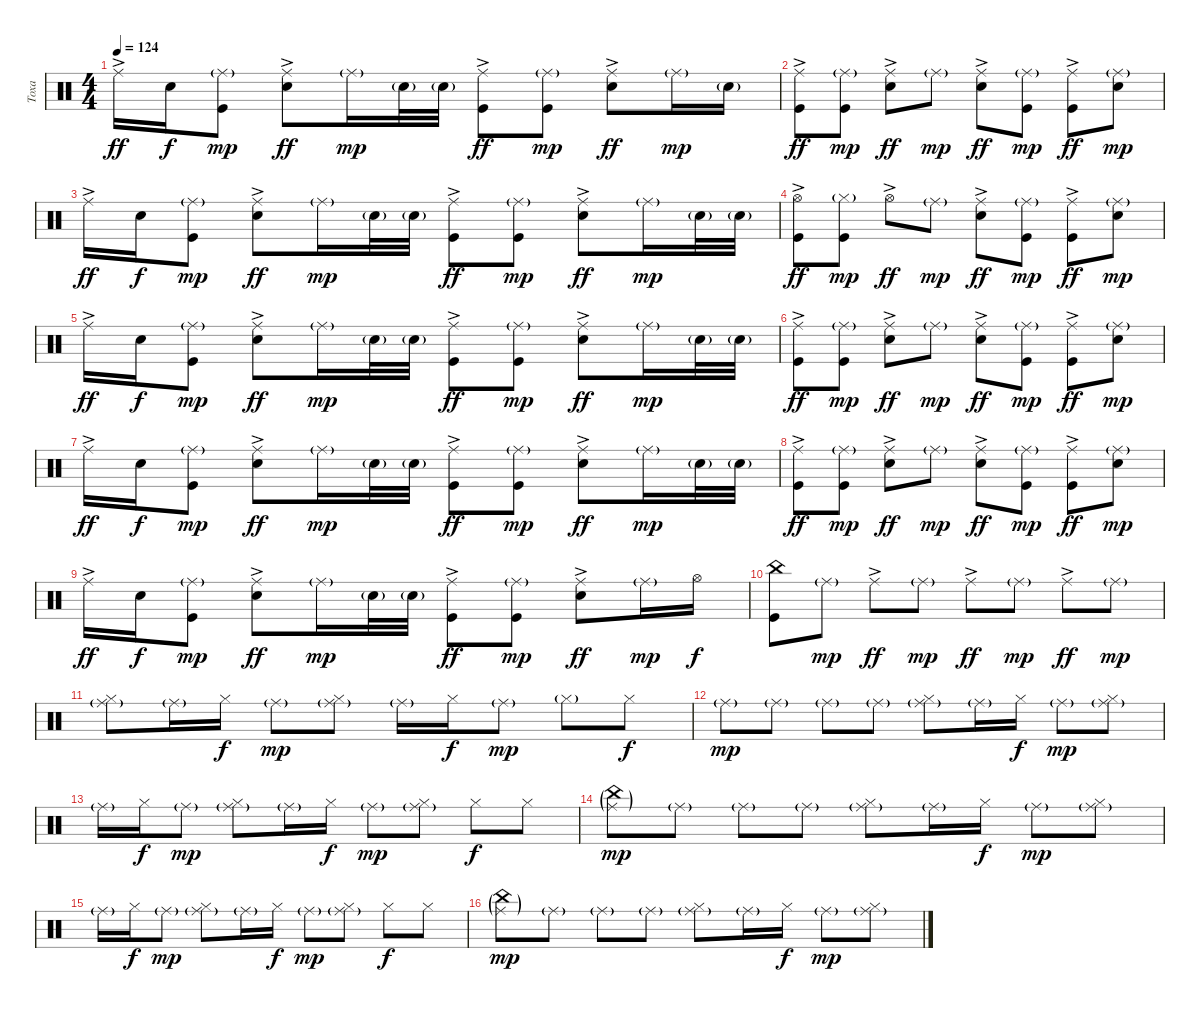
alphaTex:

\track ("Тоха" "Тоха") {instrument percussion}
\staff {score}
\articulation defaults
\ts (4 4)
\tempo 124
\clef neutral
\ks c "Ride (middle)"{ac}.16{dy ff} "Snare (hit) 2".16{dy f}
("Kick (hit)" "Ride (middle)"{g}).8{dy mp} ("Snare (hit) 2" "Ride (middle)"{ac}).8{dy ff} "Ride (middle)"{g}.16{dy mp} "Snare (hit) 2"{g}.32 "Snare (hit) 2"{g}.32 ("Kick (hit)" "Ride (middle)"{ac}).8{dy ff} ("Kick (hit)" "Ride (middle)"{g}).8{dy mp} ("Snare (hit) 2" "Ride (middle)"{ac}).8{dy ff} "Ride (middle)"{g}.16{dy mp} "Snare (hit) 2"{g}.16 |
("Kick (hit)" "Ride (middle)"{ac}).8{dy ff} ("Kick (hit)" "Ride (middle)"{g}).8{dy mp} ("Snare (hit) 2" "Ride (middle)"{ac}).8{dy ff} "Ride (middle)"{g}.8{dy mp} ("Snare (hit) 2" "Ride (middle)"{ac}).8{dy ff} ("Kick (hit)" "Ride (middle)"{g}).8{dy mp} ("Kick (hit)" "Ride (middle)"{ac}).8{dy ff} ("Snare (hit) 2" "Ride (middle)"{g}).8{dy mp} |
"Ride (middle)"{ac}.16{dy ff} "Snare (hit) 2".16{dy f} ("Kick (hit)" "Ride (middle)"{g}).8{dy mp} ("Snare (hit) 2" "Ride (middle)"{ac}).8{dy ff} "Ride (middle)"{g}.16{dy mp} "Snare (hit) 2"{g}.32 "Snare (hit) 2"{g}.32 ("Kick (hit)" "Ride (middle)"{ac}).8{dy ff} ("Kick (hit)" "Ride (middle)"{g}).8{dy mp} ("Snare (hit) 2" "Ride (middle)"{ac}).8{dy ff} "Ride (middle)"{g}.16{dy mp} "Snare (hit) 2"{g}.32 "Snare (hit) 2"{g}.32 |
("Kick (hit)" "Hi-Hat (open)"{ac}).8{dy ff} ("Kick (hit)" "Hi-Hat (closed)"{g}).8{dy mp} "Hi-Hat (open)"{ac}.8{dy ff} "Ride (middle)"{g}.8{dy mp} ("Snare (hit) 2" "Ride (middle)"{ac}).8{dy ff} ("Kick (hit)" "Ride (middle)"{g}).8{dy mp} ("Kick (hit)" "Ride (middle)"{ac}).8{dy ff} ("Snare (hit) 2" "Ride (middle)"{g}).8{dy mp} |
"Ride (middle)"{ac}.16{dy ff} "Snare (hit) 2".16{dy f} ("Kick (hit)" "Ride (middle)"{g}).8{dy mp} ("Snare (hit) 2" "Ride (middle)"{ac}).8{dy ff} "Ride (middle)"{g}.16{dy mp} "Snare (hit) 2"{g}.32 "Snare (hit) 2"{g}.32 ("Kick (hit)" "Ride (middle)"{ac}).8{dy ff} ("Kick (hit)" "Ride (middle)"{g}).8{dy mp} ("Snare (hit) 2" "Ride (middle)"{ac}).8{dy ff} "Ride (middle)"{g}.16{dy mp} "Snare (hit) 2"{g}.32 "Snare (hit) 2"{g}.32 |
("Kick (hit)" "Ride (middle)"{ac}).8{dy ff} ("Kick (hit)" "Ride (middle)"{g}).8{dy mp} ("Snare (hit) 2" "Ride (middle)"{ac}).8{dy ff} "Ride (middle)"{g}.8{dy mp} ("Snare (hit) 2" "Ride (middle)"{ac}).8{dy ff} ("Kick (hit)" "Ride (middle)"{g}).8{dy mp} ("Kick (hit)" "Ride (middle)"{ac}).8{dy ff} ("Snare (hit) 2" "Ride (middle)"{g}).8{dy mp} |
"Ride (middle)"{ac}.16{dy ff} "Snare (hit) 2".16{dy f} ("Kick (hit)" "Ride (middle)"{g}).8{dy mp} ("Snare (hit) 2" "Ride (middle)"{ac}).8{dy ff} "Ride (middle)"{g}.16{dy mp} "Snare (hit) 2"{g}.32 "Snare (hit) 2"{g}.32 ("Kick (hit)" "Ride (middle)"{ac}).8{dy ff} ("Kick (hit)" "Ride (middle)"{g}).8{dy mp} ("Snare (hit) 2" "Ride (middle)"{ac}).8{dy ff} "Ride (middle)"{g}.16{dy mp} "Snare (hit) 2"{g}.32 "Snare (hit) 2"{g}.32 |
("Kick (hit)" "Ride (middle)"{ac}).8{dy ff} ("Kick (hit)" "Ride (middle)"{g}).8{dy mp} ("Snare (hit) 2" "Ride (middle)"{ac}).8{dy ff} "Ride (middle)"{g}.8{dy mp} ("Snare (hit) 2" "Ride (middle)"{ac}).8{dy ff} ("Kick (hit)" "Ride (middle)"{g}).8{dy mp} ("Kick (hit)" "Ride (middle)"{ac}).8{dy ff} ("Snare (hit) 2" "Ride (middle)"{g}).8{dy mp} |
"Ride (middle)"{ac}.16{dy ff} "Snare (hit) 2".16{dy f} ("Kick (hit)" "Ride (middle)"{g}).8{dy mp} ("Snare (hit) 2" "Ride (middle)"{ac}).8{dy ff} "Ride (middle)"{g}.16{dy mp} "Snare (hit) 2"{g}.32 "Snare (hit) 2"{g}.32 ("Kick (hit)" "Ride (middle)"{ac}).8{dy ff} ("Kick (hit)" "Ride (middle)"{g}).8{dy mp} ("Snare (hit) 2" "Ride (middle)"{ac}).8{dy ff} "Ride (middle)"{g}.16{dy mp} "Hi-Hat (open)".16{dy f} |
("Kick (hit)" "China (hit)").8 "Ride (middle)"{g}.8{dy mp} "Ride (middle)"{ac}.8{dy ff} "Ride (middle)"{g}.8{dy mp} "Ride (middle)"{ac}.8{dy ff} "Ride (middle)"{g}.8{dy mp} "Ride (middle)"{ac}.8{dy ff} "Ride (middle)"{g}.8{dy mp} |
("Hi-Hat (closed)" "Ride (middle)"{g}).8 "Ride (middle)"{g}.16 "Hi-Hat (closed)".16{dy f} "Ride (middle)"{g}.8{dy mp} ("Hi-Hat (closed)" "Ride (middle)"{g}).8 "Ride (middle)"{g}.16 "Hi-Hat (closed)".16{dy f} "Ride (middle)"{g}.8{dy mp} "Hi-Hat (closed)"{g}.8 "Hi-Hat (closed)".8{dy f} |
"Ride (middle)"{g}.8{dy mp} "Ride (middle)"{g}.8 "Ride (middle)"{g}.8 "Ride (middle)"{g}.8 ("Hi-Hat (closed)" "Ride (middle)"{g}).8 "Ride (middle)"{g}.16 "Hi-Hat (closed)".16{dy f} "Ride (middle)"{g}.8{dy mp} ("Hi-Hat (closed)" "Ride (middle)"{g}).8 |
"Ride (middle)"{g}.16 "Hi-Hat (closed)".16{dy f} "Ride (middle)"{g}.8{dy mp} ("Hi-Hat (closed)" "Ride (middle)"{g}).8 "Ride (middle)"{g}.16 "Hi-Hat (closed)".16{dy f} "Ride (middle)"{g}.8{dy mp} ("Hi-Hat (closed)" "Ride (middle)"{g}).8 "Hi-Hat (closed)".8{dy f} "Hi-Hat (closed)".8 |
("Ride (middle)"{g} "China (hit)"{g}).8{dy mp} "Ride (middle)"{g}.8 "Ride (middle)"{g}.8 "Ride (middle)"{g}.8 ("Hi-Hat (closed)" "Ride (middle)"{g}).8 "Ride (middle)"{g}.16 "Hi-Hat (closed)".16{dy f} "Ride (middle)"{g}.8{dy mp} ("Hi-Hat (closed)" "Ride (middle)"{g}).8 |
"Ride (middle)"{g}.16 "Hi-Hat (closed)".16{dy f} "Ride (middle)"{g}.8{dy mp} ("Hi-Hat (closed)" "Ride (middle)"{g}).8 "Ride (middle)"{g}.16 "Hi-Hat (closed)".16{dy f} "Ride (middle)"{g}.8{dy mp} ("Hi-Hat (closed)" "Ride (middle)"{g}).8 "Hi-Hat (closed)".8{dy f} "Hi-Hat (closed)".8 |
("Ride (middle)"{g} "China (hit)"{g}).8{dy mp} "Ride (middle)"{g}.8 "Ride (middle)"{g}.8 "Ride (middle)"{g}.8 ("Hi-Hat (closed)" "Ride (middle)"{g}).8 "Ride (middle)"{g}.16 "Hi-Hat (closed)".16{dy f} "Ride (middle)"{g}.8{dy mp} ("Hi-Hat (closed)" "Ride (middle)"{g}).8
